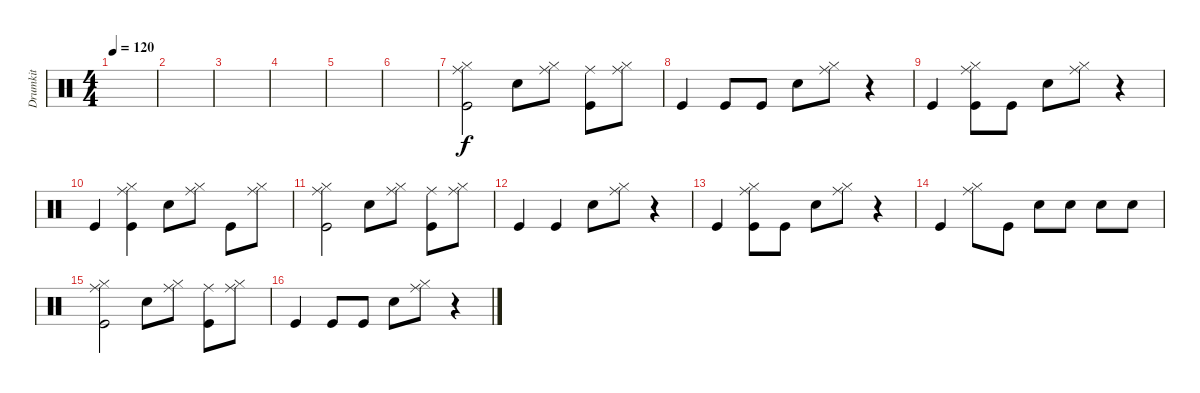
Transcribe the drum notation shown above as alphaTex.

\track ("Drumkit" "Drumkit") {instrument percussion}
\staff {score}
\articulation defaults
\ts (4 4)
\tempo 120
\clef neutral
\ks c
|
|
|
|
|
|
("Kick (hit)" "Ride (middle)" "Hi-Hat (closed)").2 "Snare (hit) 2".8 ("Hi-Hat (closed)" "Ride (middle)").8 ("Kick (hit)" "Ride (middle)").8 ("Hi-Hat (closed)" "Ride (middle)").8 |
"Kick (hit)".4 "Kick (hit)".8 "Kick (hit)".8 "Snare (hit) 2".8 ("Hi-Hat (closed)" "Ride (middle)").8 r.4 |
"Kick (hit)".4 ("Kick (hit)" "Ride (middle)" "Hi-Hat (closed)").8 "Kick (hit)".8 "Snare (hit) 2".8 ("Hi-Hat (closed)" "Ride (middle)").8 r.4 |
"Kick (hit)".4 ("Kick (hit)" "Ride (middle)" "Hi-Hat (closed)").4 "Snare (hit) 2".8 ("Ride (middle)" "Hi-Hat (closed)").8 "Kick (hit)".8 ("Ride (middle)" "Hi-Hat (closed)").8 |
("Kick (hit)" "Ride (middle)" "Hi-Hat (closed)").2 "Snare (hit) 2".8 ("Hi-Hat (closed)" "Ride (middle)").8 ("Kick (hit)" "Ride (middle)").8 ("Hi-Hat (closed)" "Ride (middle)").8 |
"Kick (hit)".4 "Kick (hit)".4 "Snare (hit) 2".8 ("Hi-Hat (closed)" "Ride (middle)").8 r.4 |
"Kick (hit)".4 ("Kick (hit)" "Ride (middle)" "Hi-Hat (closed)").8 "Kick (hit)".8 "Snare (hit) 2".8 ("Hi-Hat (closed)" "Ride (middle)").8 r.4 |
"Kick (hit)".4 ("Ride (middle)" "Hi-Hat (closed)").8 "Kick (hit)".8 "Snare (hit) 2".8 "Snare (hit) 2".8 "Snare (hit) 2".8 "Snare (hit) 2".8 |
("Kick (hit)" "Ride (middle)" "Hi-Hat (closed)").2 "Snare (hit) 2".8 ("Hi-Hat (closed)" "Ride (middle)").8 ("Kick (hit)" "Ride (middle)").8 ("Hi-Hat (closed)" "Ride (middle)").8 |
"Kick (hit)".4 "Kick (hit)".8 "Kick (hit)".8 "Snare (hit) 2".8 ("Hi-Hat (closed)" "Ride (middle)").8 r.4
